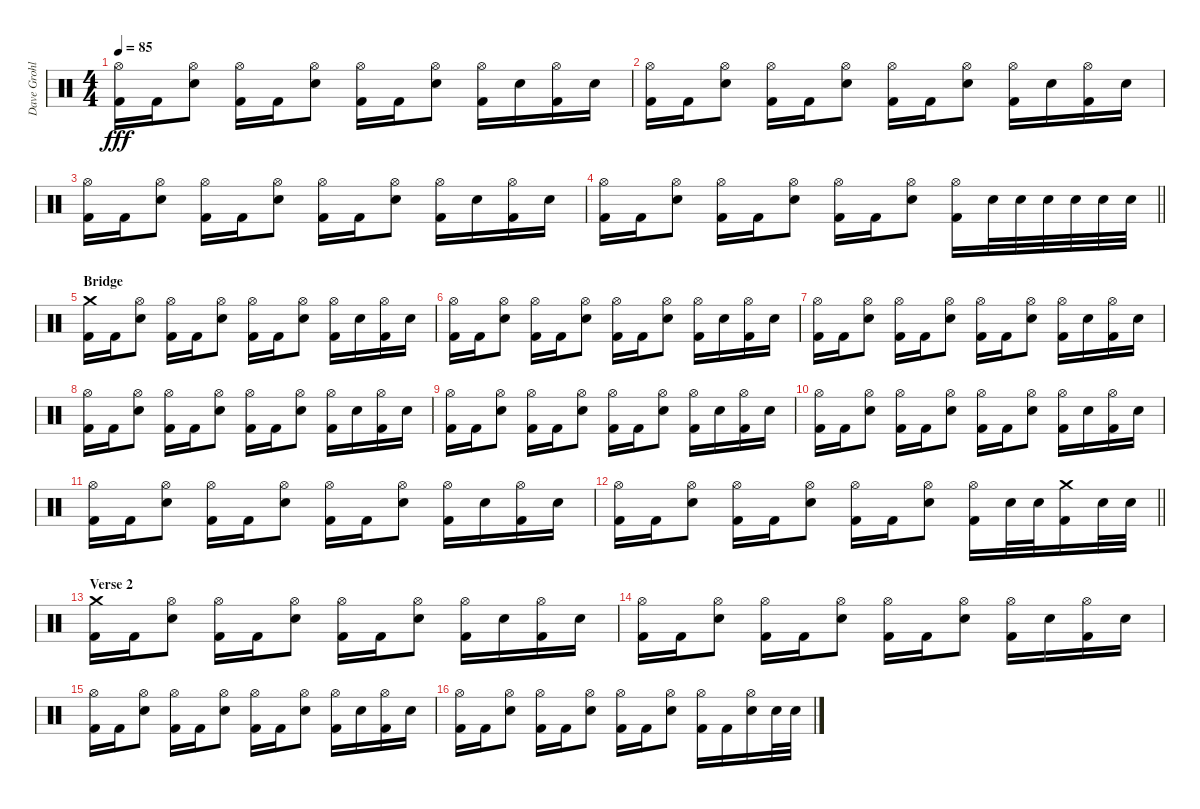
\track ("Dave Grohl ( Drums )" "Dave Grohl") {instrument percussion}
\staff {score}
\articulation defaults
\ts (4 4)
\tempo 85
\clef neutral
\ks c
("Hi-Hat (open)" "Kick (hit) 2").16{dy fff} "Kick (hit) 2".16 ("Hi-Hat (open)" "Electric Snare (hit)").8 ("Hi-Hat (open)" "Kick (hit) 2").16 "Kick (hit) 2".16 ("Hi-Hat (open)" "Electric Snare (hit)").8 ("Hi-Hat (open)" "Kick (hit) 2").16 "Kick (hit) 2".16 ("Hi-Hat (open)" "Electric Snare (hit)").8 ("Hi-Hat (open)" "Kick (hit) 2").16 "Electric Snare (hit)".16 ("Hi-Hat (open)" "Kick (hit) 2").16 "Electric Snare (hit)".16 |
("Hi-Hat (open)" "Kick (hit) 2").16 "Kick (hit) 2".16 ("Hi-Hat (open)" "Electric Snare (hit)").8 ("Hi-Hat (open)" "Kick (hit) 2").16 "Kick (hit) 2".16 ("Hi-Hat (open)" "Electric Snare (hit)").8 ("Hi-Hat (open)" "Kick (hit) 2").16 "Kick (hit) 2".16 ("Hi-Hat (open)" "Electric Snare (hit)").8 ("Hi-Hat (open)" "Kick (hit) 2").16 "Electric Snare (hit)".16 ("Hi-Hat (open)" "Kick (hit) 2").16 "Electric Snare (hit)".16 |
("Hi-Hat (open)" "Kick (hit) 2").16 "Kick (hit) 2".16 ("Hi-Hat (open)" "Electric Snare (hit)").8 ("Hi-Hat (open)" "Kick (hit) 2").16 "Kick (hit) 2".16 ("Hi-Hat (open)" "Electric Snare (hit)").8 ("Hi-Hat (open)" "Kick (hit) 2").16 "Kick (hit) 2".16 ("Hi-Hat (open)" "Electric Snare (hit)").8 ("Hi-Hat (open)" "Kick (hit) 2").16 "Electric Snare (hit)".16 ("Hi-Hat (open)" "Kick (hit) 2").16 "Electric Snare (hit)".16 |
\barLineRight lightlight
("Hi-Hat (open)" "Kick (hit) 2").16 "Kick (hit) 2".16 ("Hi-Hat (open)" "Electric Snare (hit)").8 ("Hi-Hat (open)" "Kick (hit) 2").16 "Kick (hit) 2".16 ("Hi-Hat (open)" "Electric Snare (hit)").8 ("Hi-Hat (open)" "Kick (hit) 2").16 "Kick (hit) 2".16 ("Hi-Hat (open)" "Electric Snare (hit)").8 ("Hi-Hat (open)" "Kick (hit) 2").16 "Electric Snare (hit)".32 "Electric Snare (hit)".32 "Electric Snare (hit)".32 "Electric Snare (hit)".32 "Electric Snare (hit)".32 "Electric Snare (hit)".32 |
\section ("" "Bridge")
("Crash medium (hit)" "Kick (hit) 2").16 "Kick (hit) 2".16 ("Hi-Hat (open)" "Electric Snare (hit)").8 ("Hi-Hat (open)" "Kick (hit) 2").16 "Kick (hit) 2".16 ("Hi-Hat (open)" "Electric Snare (hit)").8 ("Hi-Hat (open)" "Kick (hit) 2").16 "Kick (hit) 2".16 ("Hi-Hat (open)" "Electric Snare (hit)").8 ("Hi-Hat (open)" "Kick (hit) 2").16 "Electric Snare (hit)".16 ("Hi-Hat (open)" "Kick (hit) 2").16 "Electric Snare (hit)".16 |
("Hi-Hat (open)" "Kick (hit) 2").16 "Kick (hit) 2".16 ("Hi-Hat (open)" "Electric Snare (hit)").8 ("Hi-Hat (open)" "Kick (hit) 2").16 "Kick (hit) 2".16 ("Hi-Hat (open)" "Electric Snare (hit)").8 ("Hi-Hat (open)" "Kick (hit) 2").16 "Kick (hit) 2".16 ("Hi-Hat (open)" "Electric Snare (hit)").8 ("Hi-Hat (open)" "Kick (hit) 2").16 "Electric Snare (hit)".16 ("Hi-Hat (open)" "Kick (hit) 2").16 "Electric Snare (hit)".16 |
("Hi-Hat (open)" "Kick (hit) 2").16 "Kick (hit) 2".16 ("Hi-Hat (open)" "Electric Snare (hit)").8 ("Hi-Hat (open)" "Kick (hit) 2").16 "Kick (hit) 2".16 ("Hi-Hat (open)" "Electric Snare (hit)").8 ("Hi-Hat (open)" "Kick (hit) 2").16 "Kick (hit) 2".16 ("Hi-Hat (open)" "Electric Snare (hit)").8 ("Hi-Hat (open)" "Kick (hit) 2").16 "Electric Snare (hit)".16 ("Hi-Hat (open)" "Kick (hit) 2").16 "Electric Snare (hit)".16 |
("Hi-Hat (open)" "Kick (hit) 2").16 "Kick (hit) 2".16 ("Hi-Hat (open)" "Electric Snare (hit)").8 ("Hi-Hat (open)" "Kick (hit) 2").16 "Kick (hit) 2".16 ("Hi-Hat (open)" "Electric Snare (hit)").8 ("Hi-Hat (open)" "Kick (hit) 2").16 "Kick (hit) 2".16 ("Hi-Hat (open)" "Electric Snare (hit)").8 ("Hi-Hat (open)" "Kick (hit) 2").16 "Electric Snare (hit)".16 ("Hi-Hat (open)" "Kick (hit) 2").16 "Electric Snare (hit)".16 |
("Hi-Hat (open)" "Kick (hit) 2").16 "Kick (hit) 2".16 ("Hi-Hat (open)" "Electric Snare (hit)").8 ("Hi-Hat (open)" "Kick (hit) 2").16 "Kick (hit) 2".16 ("Hi-Hat (open)" "Electric Snare (hit)").8 ("Hi-Hat (open)" "Kick (hit) 2").16 "Kick (hit) 2".16 ("Hi-Hat (open)" "Electric Snare (hit)").8 ("Hi-Hat (open)" "Kick (hit) 2").16 "Electric Snare (hit)".16 ("Hi-Hat (open)" "Kick (hit) 2").16 "Electric Snare (hit)".16 |
("Hi-Hat (open)" "Kick (hit) 2").16 "Kick (hit) 2".16 ("Hi-Hat (open)" "Electric Snare (hit)").8 ("Hi-Hat (open)" "Kick (hit) 2").16 "Kick (hit) 2".16 ("Hi-Hat (open)" "Electric Snare (hit)").8 ("Hi-Hat (open)" "Kick (hit) 2").16 "Kick (hit) 2".16 ("Hi-Hat (open)" "Electric Snare (hit)").8 ("Hi-Hat (open)" "Kick (hit) 2").16 "Electric Snare (hit)".16 ("Hi-Hat (open)" "Kick (hit) 2").16 "Electric Snare (hit)".16 |
("Hi-Hat (open)" "Kick (hit) 2").16 "Kick (hit) 2".16 ("Hi-Hat (open)" "Electric Snare (hit)").8 ("Hi-Hat (open)" "Kick (hit) 2").16 "Kick (hit) 2".16 ("Hi-Hat (open)" "Electric Snare (hit)").8 ("Hi-Hat (open)" "Kick (hit) 2").16 "Kick (hit) 2".16 ("Hi-Hat (open)" "Electric Snare (hit)").8 ("Hi-Hat (open)" "Kick (hit) 2").16 "Electric Snare (hit)".16 ("Hi-Hat (open)" "Kick (hit) 2").16 "Electric Snare (hit)".16 |
\barLineRight lightlight
("Hi-Hat (open)" "Kick (hit) 2").16 "Kick (hit) 2".16 ("Hi-Hat (open)" "Electric Snare (hit)").8 ("Hi-Hat (open)" "Kick (hit) 2").16 "Kick (hit) 2".16 ("Hi-Hat (open)" "Electric Snare (hit)").8 ("Hi-Hat (open)" "Kick (hit) 2").16 "Kick (hit) 2".16 ("Hi-Hat (open)" "Electric Snare (hit)").8 ("Hi-Hat (open)" "Kick (hit) 2").16 "Electric Snare (hit)".32 "Electric Snare (hit)".32 ("Crash medium (hit)" "Kick (hit) 2").16 "Electric Snare (hit)".32 "Electric Snare (hit)".32 |
\section ("" "Verse 2")
("Crash medium (hit)" "Kick (hit) 2").16 "Kick (hit) 2".16 ("Hi-Hat (open)" "Electric Snare (hit)").8 ("Hi-Hat (open)" "Kick (hit) 2").16 "Kick (hit) 2".16 ("Hi-Hat (open)" "Electric Snare (hit)").8 ("Hi-Hat (open)" "Kick (hit) 2").16 "Kick (hit) 2".16 ("Hi-Hat (open)" "Electric Snare (hit)").8 ("Hi-Hat (open)" "Kick (hit) 2").16 "Electric Snare (hit)".16 ("Hi-Hat (open)" "Kick (hit) 2").16 "Electric Snare (hit)".16 |
("Hi-Hat (open)" "Kick (hit) 2").16 "Kick (hit) 2".16 ("Hi-Hat (open)" "Electric Snare (hit)").8 ("Hi-Hat (open)" "Kick (hit) 2").16 "Kick (hit) 2".16 ("Hi-Hat (open)" "Electric Snare (hit)").8 ("Hi-Hat (open)" "Kick (hit) 2").16 "Kick (hit) 2".16 ("Hi-Hat (open)" "Electric Snare (hit)").8 ("Hi-Hat (open)" "Kick (hit) 2").16 "Electric Snare (hit)".16 ("Hi-Hat (open)" "Kick (hit) 2").16 "Electric Snare (hit)".16 |
("Hi-Hat (open)" "Kick (hit) 2").16 "Kick (hit) 2".16 ("Hi-Hat (open)" "Electric Snare (hit)").8 ("Hi-Hat (open)" "Kick (hit) 2").16 "Kick (hit) 2".16 ("Hi-Hat (open)" "Electric Snare (hit)").8 ("Hi-Hat (open)" "Kick (hit) 2").16 "Kick (hit) 2".16 ("Hi-Hat (open)" "Electric Snare (hit)").8 ("Hi-Hat (open)" "Kick (hit) 2").16 "Electric Snare (hit)".16 ("Hi-Hat (open)" "Kick (hit) 2").16 "Electric Snare (hit)".16 |
("Hi-Hat (open)" "Kick (hit) 2").16 "Kick (hit) 2".16 ("Hi-Hat (open)" "Electric Snare (hit)").8 ("Hi-Hat (open)" "Kick (hit) 2").16 "Kick (hit) 2".16 ("Hi-Hat (open)" "Electric Snare (hit)").8 ("Hi-Hat (open)" "Kick (hit) 2").16 "Kick (hit) 2".16 ("Hi-Hat (open)" "Electric Snare (hit)").8 ("Hi-Hat (open)" "Kick (hit) 2").16 "Kick (hit) 2".16 ("Hi-Hat (open)" "Electric Snare (hit)").16 "Electric Snare (hit)".32 "Electric Snare (hit)".32
